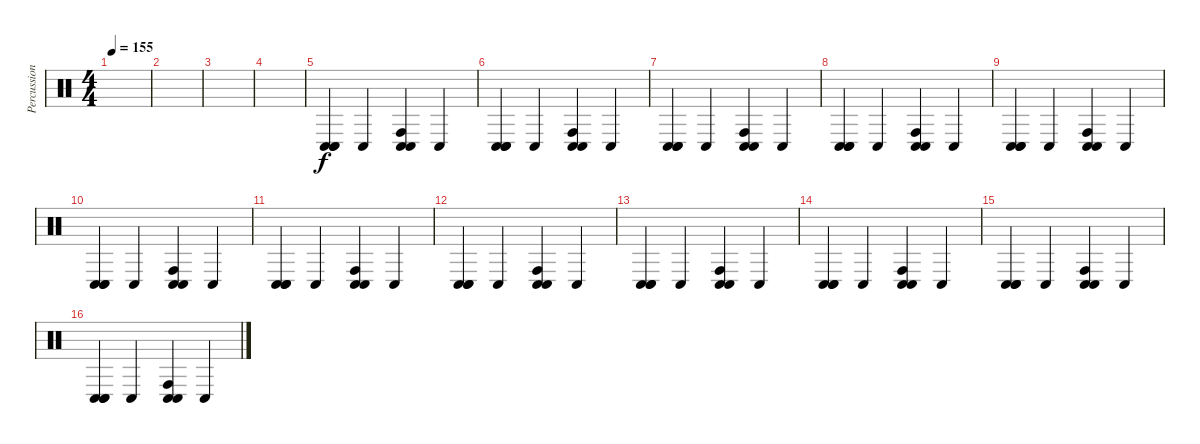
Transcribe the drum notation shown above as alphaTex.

\track ("Percussion" "Percussion") {instrument percussion}
\staff {score}
\articulation defaults
\ts (4 4)
\tempo 155
\clef neutral
\ks c
|
|
|
|
("Conga low (hit)" "Conga low (hit)" "Conga low (hit)").4 "Conga low (hit)".4 ("Conga high (hit)" "Conga low (hit)" "Conga low (hit)").4 "Conga low (hit)".4 |
("Conga low (hit)" "Conga low (hit)" "Conga low (hit)").4 "Conga low (hit)".4 ("Conga high (hit)" "Conga low (hit)" "Conga low (hit)").4 "Conga low (hit)".4 |
("Conga low (hit)" "Conga low (hit)" "Conga low (hit)").4 "Conga low (hit)".4 ("Conga high (hit)" "Conga low (hit)" "Conga low (hit)").4 "Conga low (hit)".4 |
("Conga low (hit)" "Conga low (hit)" "Conga low (hit)").4 "Conga low (hit)".4 ("Conga high (hit)" "Conga low (hit)" "Conga low (hit)").4 "Conga low (hit)".4 |
("Conga low (hit)" "Conga low (hit)" "Conga low (hit)").4 "Conga low (hit)".4 ("Conga high (hit)" "Conga low (hit)" "Conga low (hit)").4 "Conga low (hit)".4 |
("Conga low (hit)" "Conga low (hit)" "Conga low (hit)").4 "Conga low (hit)".4 ("Conga high (hit)" "Conga low (hit)" "Conga low (hit)").4 "Conga low (hit)".4 |
("Conga low (hit)" "Conga low (hit)" "Conga low (hit)").4 "Conga low (hit)".4 ("Conga high (hit)" "Conga low (hit)" "Conga low (hit)").4 "Conga low (hit)".4 |
("Conga low (hit)" "Conga low (hit)" "Conga low (hit)").4 "Conga low (hit)".4 ("Conga high (hit)" "Conga low (hit)" "Conga low (hit)").4 "Conga low (hit)".4 |
("Conga low (hit)" "Conga low (hit)" "Conga low (hit)").4 "Conga low (hit)".4 ("Conga high (hit)" "Conga low (hit)" "Conga low (hit)").4 "Conga low (hit)".4 |
("Conga low (hit)" "Conga low (hit)" "Conga low (hit)").4 "Conga low (hit)".4 ("Conga high (hit)" "Conga low (hit)" "Conga low (hit)").4 "Conga low (hit)".4 |
("Conga low (hit)" "Conga low (hit)" "Conga low (hit)").4 "Conga low (hit)".4 ("Conga high (hit)" "Conga low (hit)" "Conga low (hit)").4 "Conga low (hit)".4 |
("Conga low (hit)" "Conga low (hit)" "Conga low (hit)").4 "Conga low (hit)".4 ("Conga high (hit)" "Conga low (hit)" "Conga low (hit)").4 "Conga low (hit)".4
